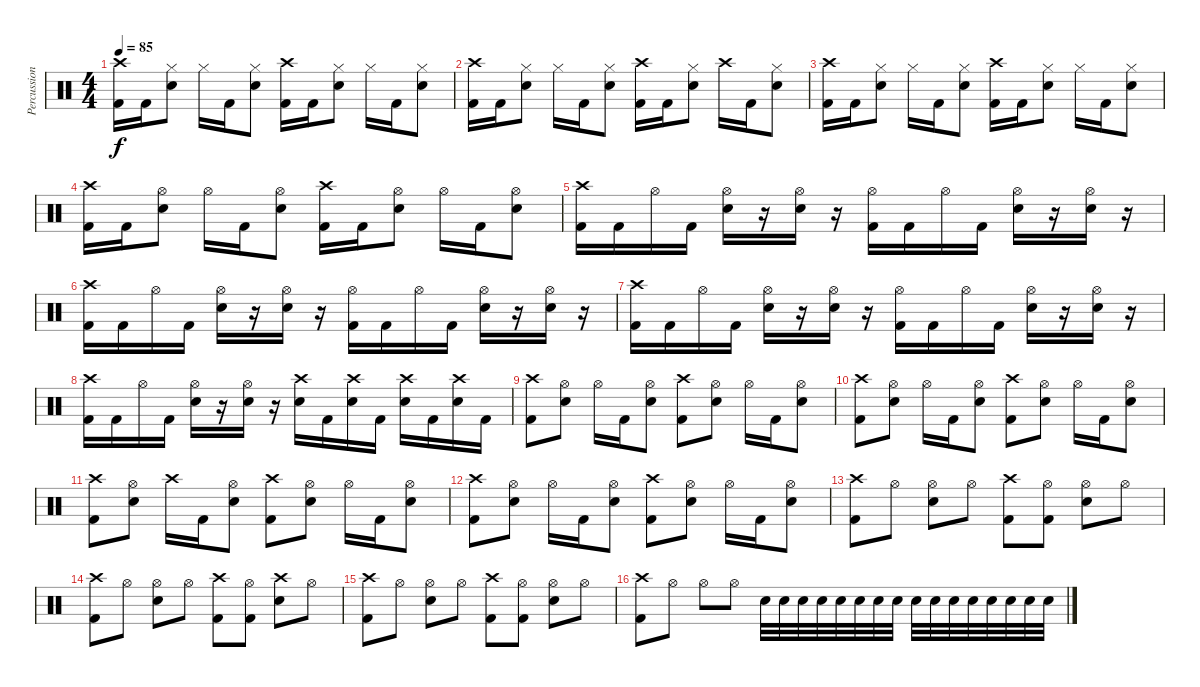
\track ("Percussion" "Percussion") {instrument percussion}
\staff {score}
\articulation defaults
\ts (4 4)
\tempo 85
\clef neutral
\ks c
("Crash high (hit)" "Kick (hit) 2").16{dy f} "Kick (hit) 2".16 ("Hi-Hat (closed)" "Snare (hit) 2").8 "Hi-Hat (closed)".16 "Kick (hit) 2".16 ("Hi-Hat (closed)" "Snare (hit) 2").8 ("Crash high (hit)" "Kick (hit) 2").16 "Kick (hit) 2".16 ("Hi-Hat (closed)" "Snare (hit) 2").8 "Hi-Hat (closed)".16 "Kick (hit) 2".16 ("Hi-Hat (closed)" "Snare (hit) 2").8 |
("Crash high (hit)" "Kick (hit) 2").16 "Kick (hit) 2".16 ("Hi-Hat (closed)" "Snare (hit) 2").8 "Hi-Hat (closed)".16 "Kick (hit) 2".16 ("Hi-Hat (closed)" "Snare (hit) 2").8 ("Crash high (hit)" "Kick (hit) 2").16 "Kick (hit) 2".16 ("Hi-Hat (closed)" "Snare (hit) 2").8 "Crash high (hit)".16 "Kick (hit) 2".16 ("Hi-Hat (closed)" "Snare (hit) 2").8 |
("Crash high (hit)" "Kick (hit) 2").16 "Kick (hit) 2".16 ("Hi-Hat (closed)" "Snare (hit) 2").8 "Hi-Hat (closed)".16 "Kick (hit) 2".16 ("Hi-Hat (closed)" "Snare (hit) 2").8 ("Crash high (hit)" "Kick (hit) 2").16 "Kick (hit) 2".16 ("Hi-Hat (closed)" "Snare (hit) 2").8 "Hi-Hat (closed)".16 "Kick (hit) 2".16 ("Hi-Hat (closed)" "Snare (hit) 2").8 |
("Crash high (hit)" "Kick (hit) 2").16 "Kick (hit) 2".16 ("Hi-Hat (open)" "Snare (hit) 2").8 "Hi-Hat (open)".16 "Kick (hit) 2".16 ("Hi-Hat (open)" "Snare (hit) 2").8 ("Crash high (hit)" "Kick (hit) 2").16 "Kick (hit) 2".16 ("Hi-Hat (open)" "Snare (hit) 2").8 "Hi-Hat (open)".16 "Kick (hit) 2".16 ("Hi-Hat (open)" "Snare (hit) 2").8 |
("Crash high (hit)" "Kick (hit) 2").16 "Kick (hit) 2".16 "Hi-Hat (open)".16 "Kick (hit) 2".16 ("Hi-Hat (open)" "Snare (hit) 2").16 r.16 ("Hi-Hat (open)" "Snare (hit) 2").16 r.16 ("Hi-Hat (open)" "Kick (hit) 2").16 "Kick (hit) 2".16 "Hi-Hat (open)".16 "Kick (hit) 2".16 ("Hi-Hat (open)" "Snare (hit) 2").16 r.16 ("Hi-Hat (open)" "Snare (hit) 2").16 r.16 |
("Crash high (hit)" "Kick (hit) 2").16 "Kick (hit) 2".16 "Hi-Hat (open)".16 "Kick (hit) 2".16 ("Hi-Hat (open)" "Snare (hit) 2").16 r.16 ("Hi-Hat (open)" "Snare (hit) 2").16 r.16 ("Hi-Hat (open)" "Kick (hit) 2").16 "Kick (hit) 2".16 "Hi-Hat (open)".16 "Kick (hit) 2".16 ("Hi-Hat (open)" "Snare (hit) 2").16 r.16 ("Hi-Hat (open)" "Snare (hit) 2").16 r.16 |
("Crash high (hit)" "Kick (hit) 2").16 "Kick (hit) 2".16 "Hi-Hat (open)".16 "Kick (hit) 2".16 ("Hi-Hat (open)" "Snare (hit) 2").16 r.16 ("Hi-Hat (open)" "Snare (hit) 2").16 r.16 ("Hi-Hat (open)" "Kick (hit) 2").16 "Kick (hit) 2".16 "Hi-Hat (open)".16 "Kick (hit) 2".16 ("Hi-Hat (open)" "Snare (hit) 2").16 r.16 ("Hi-Hat (open)" "Snare (hit) 2").16 r.16 |
("Crash high (hit)" "Kick (hit) 2").16 "Kick (hit) 2".16 "Hi-Hat (open)".16 "Kick (hit) 2".16 ("Hi-Hat (open)" "Snare (hit) 2").16 r.16 ("Hi-Hat (open)" "Snare (hit) 2").16 r.16 ("Crash high (hit)" "Snare (hit) 2").16 "Kick (hit) 2".16 ("Crash high (hit)" "Snare (hit) 2").16 "Kick (hit) 2".16 ("Crash high (hit)" "Snare (hit) 2").16 "Kick (hit) 2".16 ("Crash high (hit)" "Snare (hit) 2").16 "Kick (hit) 2".16 |
("Crash high (hit)" "Kick (hit) 2").8 ("Hi-Hat (open)" "Snare (hit) 2").8 "Hi-Hat (open)".16 "Kick (hit) 2".16 ("Hi-Hat (open)" "Snare (hit) 2").8 ("Crash high (hit)" "Kick (hit) 2").8 ("Hi-Hat (open)" "Snare (hit) 2").8 "Hi-Hat (open)".16 "Kick (hit) 2".16 ("Hi-Hat (open)" "Snare (hit) 2").8 |
("Crash high (hit)" "Kick (hit) 2").8 ("Hi-Hat (open)" "Snare (hit) 2").8 "Hi-Hat (open)".16 "Kick (hit) 2".16 ("Hi-Hat (open)" "Snare (hit) 2").8 ("Crash high (hit)" "Kick (hit) 2").8 ("Hi-Hat (open)" "Snare (hit) 2").8 "Hi-Hat (open)".16 "Kick (hit) 2".16 ("Hi-Hat (open)" "Snare (hit) 2").8 |
("Crash high (hit)" "Kick (hit) 2").8 ("Hi-Hat (open)" "Snare (hit) 2").8 "Crash high (hit)".16 "Kick (hit) 2".16 ("Hi-Hat (open)" "Snare (hit) 2").8 ("Crash high (hit)" "Kick (hit) 2").8 ("Hi-Hat (open)" "Snare (hit) 2").8 "Hi-Hat (open)".16 "Kick (hit) 2".16 ("Hi-Hat (open)" "Snare (hit) 2").8 |
("Crash high (hit)" "Kick (hit) 2").8 ("Hi-Hat (open)" "Snare (hit) 2").8 "Hi-Hat (open)".16 "Kick (hit) 2".16 ("Hi-Hat (open)" "Snare (hit) 2").8 ("Crash high (hit)" "Kick (hit) 2").8 ("Hi-Hat (open)" "Snare (hit) 2").8 "Hi-Hat (open)".16 "Kick (hit) 2".16 ("Hi-Hat (open)" "Snare (hit) 2").8 |
("Crash high (hit)" "Kick (hit) 2").8 "Hi-Hat (open)".8 ("Hi-Hat (open)" "Snare (hit) 2").8 "Hi-Hat (open)".8 ("Crash high (hit)" "Kick (hit) 2").8 ("Hi-Hat (open)" "Kick (hit) 2").8 ("Hi-Hat (open)" "Snare (hit) 2").8 "Hi-Hat (open)".8 |
("Crash high (hit)" "Kick (hit) 2").8 "Hi-Hat (open)".8 ("Hi-Hat (open)" "Snare (hit) 2").8 "Hi-Hat (open)".8 ("Crash high (hit)" "Kick (hit) 2").8 ("Hi-Hat (open)" "Kick (hit) 2").8 ("Crash high (hit)" "Snare (hit) 2").8 "Hi-Hat (open)".8 |
("Crash high (hit)" "Kick (hit) 2").8 "Hi-Hat (open)".8 ("Hi-Hat (open)" "Snare (hit) 2").8 "Hi-Hat (open)".8 ("Crash high (hit)" "Kick (hit) 2").8 ("Hi-Hat (open)" "Kick (hit) 2").8 ("Hi-Hat (open)" "Snare (hit) 2").8 "Hi-Hat (open)".8 |
("Crash high (hit)" "Kick (hit) 2").8 "Hi-Hat (open)".8 "Hi-Hat (open)".8 "Hi-Hat (open)".8 "Snare (hit) 2".32 "Snare (hit) 2".32 "Snare (hit) 2".32 "Snare (hit) 2".32 "Snare (hit) 2".32 "Snare (hit) 2".32 "Snare (hit) 2".32 "Snare (hit) 2".32 "Snare (hit) 2".32 "Snare (hit) 2".32 "Snare (hit) 2".32 "Snare (hit) 2".32 "Snare (hit) 2".32 "Snare (hit) 2".32 "Snare (hit) 2".32 "Snare (hit) 2".32
